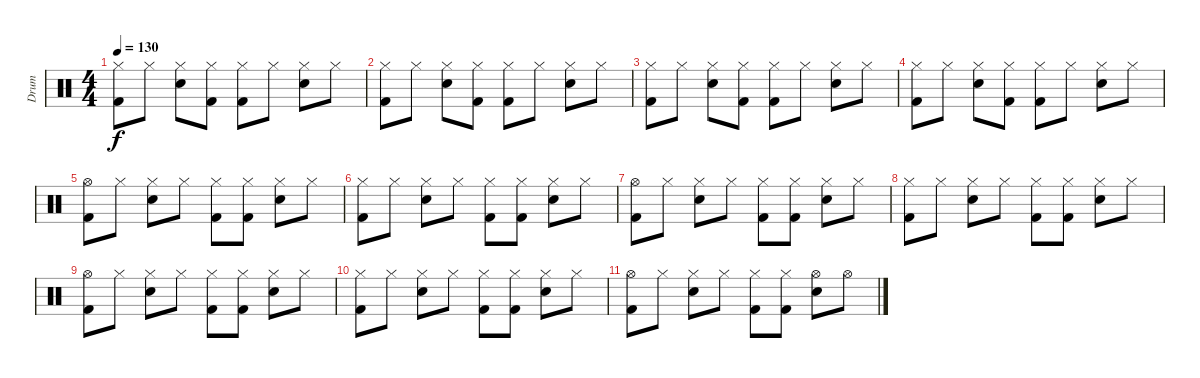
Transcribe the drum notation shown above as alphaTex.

\track ("Drum" "Drum") {instrument percussion}
\staff {score}
\articulation defaults
\ts (4 4)
\tempo 130
\clef neutral
\ks c
("Hi-Hat (closed)" "Kick (hit) 2").8{dy f} "Hi-Hat (closed)".8 ("Hi-Hat (closed)" "Electric Snare (hit)").8 ("Hi-Hat (closed)" "Kick (hit) 2").8 ("Hi-Hat (closed)" "Kick (hit) 2").8 "Hi-Hat (closed)".8 ("Hi-Hat (closed)" "Electric Snare (hit)").8 "Hi-Hat (closed)".8 |
("Hi-Hat (closed)" "Kick (hit) 2").8 "Hi-Hat (closed)".8 ("Hi-Hat (closed)" "Electric Snare (hit)").8 ("Hi-Hat (closed)" "Kick (hit) 2").8 ("Hi-Hat (closed)" "Kick (hit) 2").8 "Hi-Hat (closed)".8 ("Hi-Hat (closed)" "Electric Snare (hit)").8 "Hi-Hat (closed)".8 |
("Hi-Hat (closed)" "Kick (hit) 2").8 "Hi-Hat (closed)".8 ("Hi-Hat (closed)" "Electric Snare (hit)").8 ("Hi-Hat (closed)" "Kick (hit) 2").8 ("Hi-Hat (closed)" "Kick (hit) 2").8 "Hi-Hat (closed)".8 ("Hi-Hat (closed)" "Electric Snare (hit)").8 "Hi-Hat (closed)".8 |
("Hi-Hat (closed)" "Kick (hit) 2").8 "Hi-Hat (closed)".8 ("Hi-Hat (closed)" "Electric Snare (hit)").8 ("Hi-Hat (closed)" "Kick (hit) 2").8 ("Hi-Hat (closed)" "Kick (hit) 2").8 "Hi-Hat (closed)".8 ("Hi-Hat (closed)" "Electric Snare (hit)").8 "Hi-Hat (closed)".8 |
("Hi-Hat (open)" "Kick (hit) 2").8 "Hi-Hat (closed)".8 ("Hi-Hat (closed)" "Electric Snare (hit)").8 "Hi-Hat (closed)".8 ("Hi-Hat (closed)" "Kick (hit) 2").8 ("Hi-Hat (closed)" "Kick (hit) 2").8 ("Hi-Hat (closed)" "Electric Snare (hit)").8 "Hi-Hat (closed)".8 |
("Hi-Hat (closed)" "Kick (hit) 2").8 "Hi-Hat (closed)".8 ("Hi-Hat (closed)" "Electric Snare (hit)").8 "Hi-Hat (closed)".8 ("Hi-Hat (closed)" "Kick (hit) 2").8 ("Hi-Hat (closed)" "Kick (hit) 2").8 ("Hi-Hat (closed)" "Electric Snare (hit)").8 "Hi-Hat (closed)".8 |
("Hi-Hat (open)" "Kick (hit) 2").8 "Hi-Hat (closed)".8 ("Hi-Hat (closed)" "Electric Snare (hit)").8 "Hi-Hat (closed)".8 ("Hi-Hat (closed)" "Kick (hit) 2").8 ("Hi-Hat (closed)" "Kick (hit) 2").8 ("Hi-Hat (closed)" "Electric Snare (hit)").8 "Hi-Hat (closed)".8 |
("Hi-Hat (closed)" "Kick (hit) 2").8 "Hi-Hat (closed)".8 ("Hi-Hat (closed)" "Electric Snare (hit)").8 "Hi-Hat (closed)".8 ("Hi-Hat (closed)" "Kick (hit) 2").8 ("Hi-Hat (closed)" "Kick (hit) 2").8 ("Hi-Hat (closed)" "Electric Snare (hit)").8 "Hi-Hat (closed)".8 |
("Hi-Hat (open)" "Kick (hit) 2").8 "Hi-Hat (closed)".8 ("Hi-Hat (closed)" "Electric Snare (hit)").8 "Hi-Hat (closed)".8 ("Hi-Hat (closed)" "Kick (hit) 2").8 ("Hi-Hat (closed)" "Kick (hit) 2").8 ("Hi-Hat (closed)" "Electric Snare (hit)").8 "Hi-Hat (closed)".8 |
("Hi-Hat (closed)" "Kick (hit) 2").8 "Hi-Hat (closed)".8 ("Hi-Hat (closed)" "Electric Snare (hit)").8 "Hi-Hat (closed)".8 ("Hi-Hat (closed)" "Kick (hit) 2").8 ("Hi-Hat (closed)" "Kick (hit) 2").8 ("Hi-Hat (closed)" "Electric Snare (hit)").8 "Hi-Hat (closed)".8 |
("Hi-Hat (open)" "Kick (hit) 2").8 "Hi-Hat (closed)".8 ("Hi-Hat (closed)" "Electric Snare (hit)").8 "Hi-Hat (closed)".8 ("Hi-Hat (closed)" "Kick (hit) 2").8 ("Hi-Hat (closed)" "Kick (hit) 2").8 ("Hi-Hat (open)" "Electric Snare (hit)").8 "Hi-Hat (open)".8
